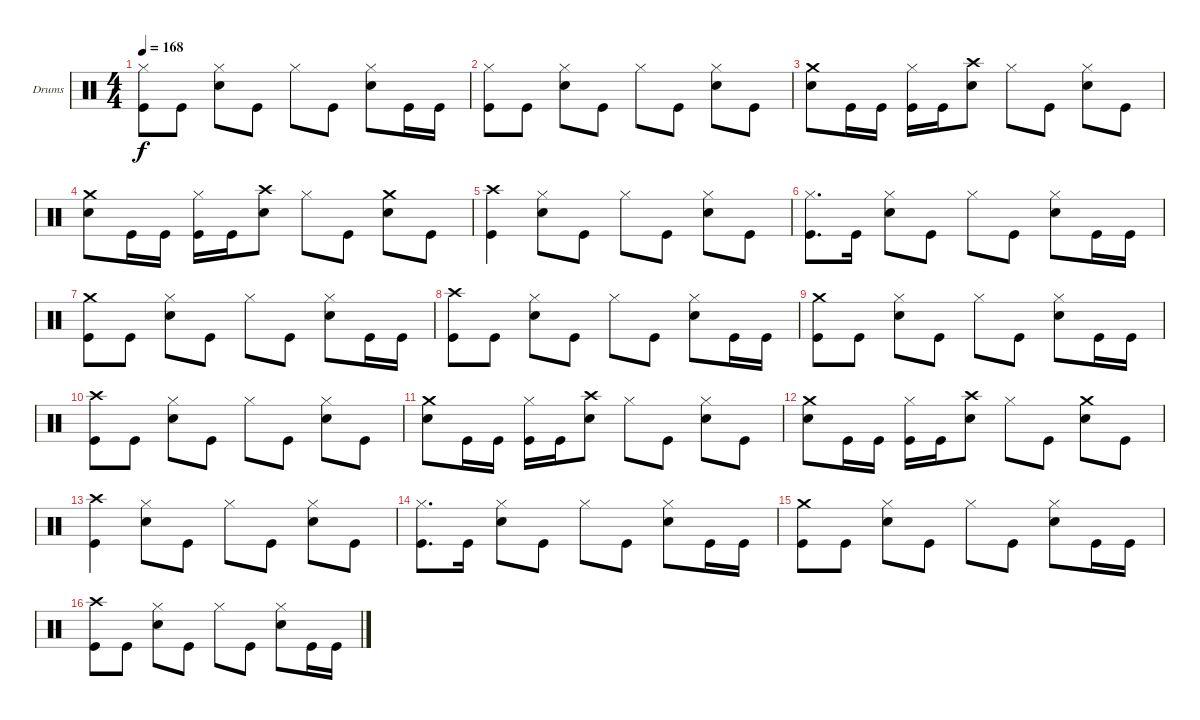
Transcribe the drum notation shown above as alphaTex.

\bracketExtendMode groupsimilarinstruments
\firstSystemTrackNameOrientation horizontal
\otherSystemsTrackNameOrientation horizontal
\track ("Drumkit" "Drums") {instrument percussion}
\staff {score}
\articulation defaults
\ts (4 4)
\tempo 168
\clef neutral
\ks c
("Hi-Hat (closed)" "Kick (hit)").8{dy f} "Kick (hit)".8 ("Hi-Hat (closed)" "Snare (hit) 2").8 "Kick (hit)".8 "Hi-Hat (closed)".8 "Kick (hit)".8 ("Hi-Hat (closed)" "Snare (hit) 2").8 "Kick (hit)".16 "Kick (hit)".16 |
("Hi-Hat (closed)" "Kick (hit)").8 "Kick (hit)".8 ("Hi-Hat (closed)" "Snare (hit) 2").8 "Kick (hit)".8 "Hi-Hat (closed)".8 "Kick (hit)".8 ("Hi-Hat (closed)" "Snare (hit) 2").8 "Kick (hit)".8 |
("Crash medium (hit)" "Snare (hit) 2").8 "Kick (hit)".16 "Kick (hit)".16 ("Hi-Hat (closed)" "Kick (hit)").16 "Kick (hit)".16 ("Crash high (hit)" "Snare (hit) 2").8 "Hi-Hat (closed)".8 "Kick (hit)".8 ("Hi-Hat (closed)" "Snare (hit) 2").8 "Kick (hit)".8 |
("Crash medium (hit)" "Snare (hit) 2").8 "Kick (hit)".16 "Kick (hit)".16 ("Hi-Hat (closed)" "Kick (hit)").16 "Kick (hit)".16 ("Crash high (hit)" "Snare (hit) 2").8 "Hi-Hat (closed)".8 "Kick (hit)".8 ("Crash medium (hit)" "Snare (hit) 2").8 "Kick (hit)".8 |
("Crash high (hit)" "Kick (hit)").4 ("Hi-Hat (closed)" "Snare (hit) 2").8 "Kick (hit)".8 "Hi-Hat (closed)".8 "Kick (hit)".8 ("Hi-Hat (closed)" "Snare (hit) 2").8 "Kick (hit)".8 |
("Hi-Hat (closed)" "Kick (hit)").8{d} "Kick (hit)".16 ("Hi-Hat (closed)" "Snare (hit) 2").8 "Kick (hit)".8 "Hi-Hat (closed)".8 "Kick (hit)".8 ("Hi-Hat (closed)" "Snare (hit) 2").8 "Kick (hit)".16 "Kick (hit)".16 |
("Crash medium (hit)" "Kick (hit)").8 "Kick (hit)".8 ("Hi-Hat (closed)" "Snare (hit) 2").8 "Kick (hit)".8 "Hi-Hat (closed)".8 "Kick (hit)".8 ("Hi-Hat (closed)" "Snare (hit) 2").8 "Kick (hit)".16 "Kick (hit)".16 |
("Crash high (hit)" "Kick (hit)").8 "Kick (hit)".8 ("Hi-Hat (closed)" "Snare (hit) 2").8 "Kick (hit)".8 "Hi-Hat (closed)".8 "Kick (hit)".8 ("Hi-Hat (closed)" "Snare (hit) 2").8 "Kick (hit)".16 "Kick (hit)".16 |
("Crash medium (hit)" "Kick (hit)").8 "Kick (hit)".8 ("Hi-Hat (closed)" "Snare (hit) 2").8 "Kick (hit)".8 "Hi-Hat (closed)".8 "Kick (hit)".8 ("Hi-Hat (closed)" "Snare (hit) 2").8 "Kick (hit)".16 "Kick (hit)".16 |
("Crash high (hit)" "Kick (hit)").8 "Kick (hit)".8 ("Hi-Hat (closed)" "Snare (hit) 2").8 "Kick (hit)".8 "Hi-Hat (closed)".8 "Kick (hit)".8 ("Hi-Hat (closed)" "Snare (hit) 2").8 "Kick (hit)".8 |
("Crash medium (hit)" "Snare (hit) 2").8 "Kick (hit)".16 "Kick (hit)".16 ("Hi-Hat (closed)" "Kick (hit)").16 "Kick (hit)".16 ("Crash high (hit)" "Snare (hit) 2").8 "Hi-Hat (closed)".8 "Kick (hit)".8 ("Hi-Hat (closed)" "Snare (hit) 2").8 "Kick (hit)".8 |
("Crash medium (hit)" "Snare (hit) 2").8 "Kick (hit)".16 "Kick (hit)".16 ("Hi-Hat (closed)" "Kick (hit)").16 "Kick (hit)".16 ("Crash high (hit)" "Snare (hit) 2").8 "Hi-Hat (closed)".8 "Kick (hit)".8 ("Crash medium (hit)" "Snare (hit) 2").8 "Kick (hit)".8 |
("Crash high (hit)" "Kick (hit)").4 ("Hi-Hat (closed)" "Snare (hit) 2").8 "Kick (hit)".8 "Hi-Hat (closed)".8 "Kick (hit)".8 ("Hi-Hat (closed)" "Snare (hit) 2").8 "Kick (hit)".8 |
("Hi-Hat (closed)" "Kick (hit)").8{d} "Kick (hit)".16 ("Hi-Hat (closed)" "Snare (hit) 2").8 "Kick (hit)".8 "Hi-Hat (closed)".8 "Kick (hit)".8 ("Hi-Hat (closed)" "Snare (hit) 2").8 "Kick (hit)".16 "Kick (hit)".16 |
("Crash medium (hit)" "Kick (hit)").8 "Kick (hit)".8 ("Hi-Hat (closed)" "Snare (hit) 2").8 "Kick (hit)".8 "Hi-Hat (closed)".8 "Kick (hit)".8 ("Hi-Hat (closed)" "Snare (hit) 2").8 "Kick (hit)".16 "Kick (hit)".16 |
("Crash high (hit)" "Kick (hit)").8 "Kick (hit)".8 ("Hi-Hat (closed)" "Snare (hit) 2").8 "Kick (hit)".8 "Hi-Hat (closed)".8 "Kick (hit)".8 ("Hi-Hat (closed)" "Snare (hit) 2").8 "Kick (hit)".16 "Kick (hit)".16
